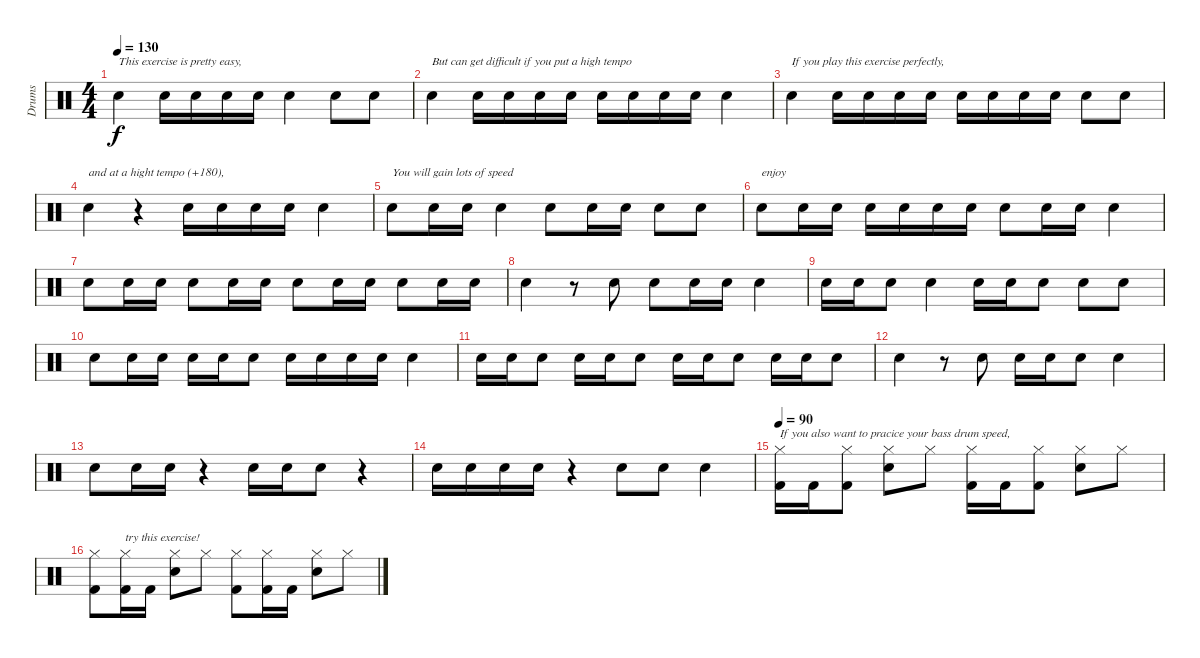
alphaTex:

\track ("Drums" "Drums") {instrument percussion}
\staff {score}
\articulation defaults
\ts (4 4)
\tempo 130
\clef neutral
\ks c "Electric Snare (hit)".4{txt "This exercise is pretty easy," dy f} "Electric Snare (hit)".16 "Electric Snare (hit)".16 "Electric Snare (hit)".16 "Electric Snare (hit)".16 "Electric Snare (hit)".4 "Electric Snare (hit)".8 "Electric Snare (hit)".8
|
"Electric Snare (hit)".4{txt "But can get difficult if you put a high tempo"} "Electric Snare (hit)".16 "Electric Snare (hit)".16 "Electric Snare (hit)".16 "Electric Snare (hit)".16 "Electric Snare (hit)".16 "Electric Snare (hit)".16 "Electric Snare (hit)".16 "Electric Snare (hit)".16 "Electric Snare (hit)".4 |
"Electric Snare (hit)".4{txt "If you play this exercise perfectly,"} "Electric Snare (hit)".16 "Electric Snare (hit)".16 "Electric Snare (hit)".16 "Electric Snare (hit)".16 "Electric Snare (hit)".16 "Electric Snare (hit)".16 "Electric Snare (hit)".16 "Electric Snare (hit)".16 "Electric Snare (hit)".8 "Electric Snare (hit)".8 |
"Electric Snare (hit)".4{txt "and at a hight tempo (+180),"} r.4 "Electric Snare (hit)".16 "Electric Snare (hit)".16 "Electric Snare (hit)".16 "Electric Snare (hit)".16 "Electric Snare (hit)".4 |
"Electric Snare (hit)".8{txt "You will gain lots of speed"} "Electric Snare (hit)".16 "Electric Snare (hit)".16 "Electric Snare (hit)".4 "Electric Snare (hit)".8 "Electric Snare (hit)".16 "Electric Snare (hit)".16 "Electric Snare (hit)".8 "Electric Snare (hit)".8 |
"Electric Snare (hit)".8{txt "enjoy"} "Electric Snare (hit)".16 "Electric Snare (hit)".16 "Electric Snare (hit)".16 "Electric Snare (hit)".16 "Electric Snare (hit)".16 "Electric Snare (hit)".16 "Electric Snare (hit)".8 "Electric Snare (hit)".16 "Electric Snare (hit)".16 "Electric Snare (hit)".4 |
"Electric Snare (hit)".8 "Electric Snare (hit)".16 "Electric Snare (hit)".16 "Electric Snare (hit)".8 "Electric Snare (hit)".16 "Electric Snare (hit)".16 "Electric Snare (hit)".8 "Electric Snare (hit)".16 "Electric Snare (hit)".16 "Electric Snare (hit)".8 "Electric Snare (hit)".16 "Electric Snare (hit)".16 |
"Electric Snare (hit)".4 r.8 "Electric Snare (hit)".8 "Electric Snare (hit)".8 "Electric Snare (hit)".16 "Electric Snare (hit)".16 "Electric Snare (hit)".4 |
"Electric Snare (hit)".16 "Electric Snare (hit)".16 "Electric Snare (hit)".8 "Electric Snare (hit)".4 "Electric Snare (hit)".16 "Electric Snare (hit)".16 "Electric Snare (hit)".8 "Electric Snare (hit)".8 "Electric Snare (hit)".8 |
"Electric Snare (hit)".8 "Electric Snare (hit)".16 "Electric Snare (hit)".16 "Electric Snare (hit)".16 "Electric Snare (hit)".16 "Electric Snare (hit)".8 "Electric Snare (hit)".16 "Electric Snare (hit)".16 "Electric Snare (hit)".16 "Electric Snare (hit)".16 "Electric Snare (hit)".4 |
"Electric Snare (hit)".16 "Electric Snare (hit)".16 "Electric Snare (hit)".8 "Electric Snare (hit)".16 "Electric Snare (hit)".16 "Electric Snare (hit)".8 "Electric Snare (hit)".16 "Electric Snare (hit)".16 "Electric Snare (hit)".8 "Electric Snare (hit)".16 "Electric Snare (hit)".16 "Electric Snare (hit)".8 |
"Electric Snare (hit)".4 r.8 "Electric Snare (hit)".8 "Electric Snare (hit)".16 "Electric Snare (hit)".16 "Electric Snare (hit)".8 "Electric Snare (hit)".4 |
"Electric Snare (hit)".8 "Electric Snare (hit)".16 "Electric Snare (hit)".16 r.4 "Electric Snare (hit)".16 "Electric Snare (hit)".16 "Electric Snare (hit)".8 r.4 |
"Electric Snare (hit)".16 "Electric Snare (hit)".16 "Electric Snare (hit)".16 "Electric Snare (hit)".16 r.4 "Electric Snare (hit)".8 "Electric Snare (hit)".8 "Electric Snare (hit)".4 |
\tempo 90
("Hi-Hat (closed)" "Kick (hit) 2").16{txt "If you also want to pracice your bass drum speed,"} "Kick (hit) 2".16 ("Hi-Hat (closed)" "Kick (hit) 2").8 ("Hi-Hat (closed)" "Electric Snare (hit)").8 "Hi-Hat (closed)".8 ("Hi-Hat (closed)" "Kick (hit) 2").16 "Kick (hit) 2".16 ("Hi-Hat (closed)" "Kick (hit) 2").8 ("Hi-Hat (closed)" "Electric Snare (hit)").8 "Hi-Hat (closed)".8 |
("Hi-Hat (closed)" "Kick (hit) 2").8 ("Hi-Hat (closed)" "Kick (hit) 2").16{txt "try this exercise!"} "Kick (hit) 2".16 ("Hi-Hat (closed)" "Electric Snare (hit)").8 "Hi-Hat (closed)".8 ("Hi-Hat (closed)" "Kick (hit) 2").8 ("Hi-Hat (closed)" "Kick (hit) 2").16 "Kick (hit) 2".16 ("Hi-Hat (closed)" "Electric Snare (hit)").8 "Hi-Hat (closed)".8
